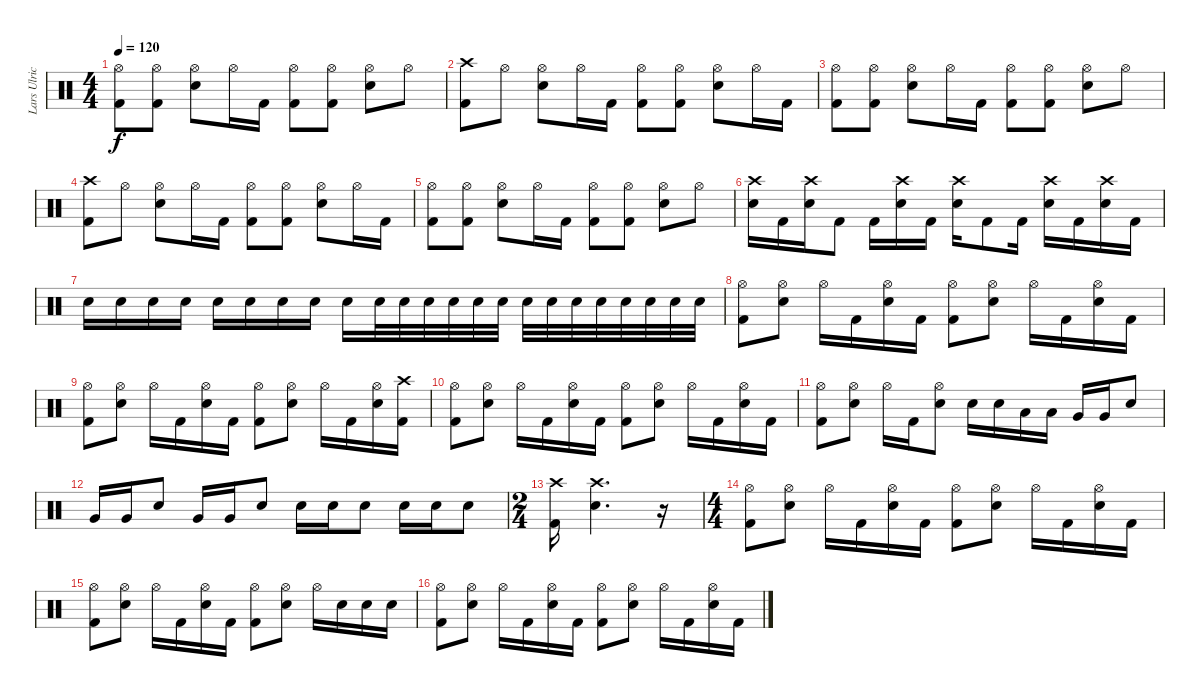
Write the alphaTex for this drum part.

\track ("Lars Ulrich" "Lars Ulric") {instrument percussion}
\staff {score}
\articulation defaults
\ts (4 4)
\tempo 120
\clef neutral
\ks c
("Hi-Hat (open)" "Kick (hit) 2").8{dy f} ("Hi-Hat (open)" "Kick (hit) 2").8 ("Hi-Hat (open)" "Electric Snare (hit)").8 "Hi-Hat (open)".16 "Kick (hit) 2".16 ("Hi-Hat (open)" "Kick (hit) 2").8 ("Hi-Hat (open)" "Kick (hit) 2").8 ("Hi-Hat (open)" "Electric Snare (hit)").8 "Hi-Hat (open)".8 |
("Crash high (hit)" "Kick (hit) 2").8 "Hi-Hat (open)".8 ("Hi-Hat (open)" "Electric Snare (hit)").8 "Hi-Hat (open)".16 "Kick (hit) 2".16 ("Hi-Hat (open)" "Kick (hit) 2").8 ("Hi-Hat (open)" "Kick (hit) 2").8 ("Hi-Hat (open)" "Electric Snare (hit)").8 "Hi-Hat (open)".16 "Kick (hit) 2".16 |
("Hi-Hat (open)" "Kick (hit) 2").8 ("Hi-Hat (open)" "Kick (hit) 2").8 ("Hi-Hat (open)" "Electric Snare (hit)").8 "Hi-Hat (open)".16 "Kick (hit) 2".16 ("Hi-Hat (open)" "Kick (hit) 2").8 ("Hi-Hat (open)" "Kick (hit) 2").8 ("Hi-Hat (open)" "Electric Snare (hit)").8 "Hi-Hat (open)".8 |
("Crash high (hit)" "Kick (hit) 2").8 "Hi-Hat (open)".8 ("Hi-Hat (open)" "Electric Snare (hit)").8 "Hi-Hat (open)".16 "Kick (hit) 2".16 ("Hi-Hat (open)" "Kick (hit) 2").8 ("Hi-Hat (open)" "Kick (hit) 2").8 ("Hi-Hat (open)" "Electric Snare (hit)").8 "Hi-Hat (open)".16 "Kick (hit) 2".16 |
("Hi-Hat (open)" "Kick (hit) 2").8 ("Hi-Hat (open)" "Kick (hit) 2").8 ("Hi-Hat (open)" "Electric Snare (hit)").8 "Hi-Hat (open)".16 "Kick (hit) 2".16 ("Hi-Hat (open)" "Kick (hit) 2").8 ("Hi-Hat (open)" "Kick (hit) 2").8 ("Hi-Hat (open)" "Electric Snare (hit)").8 "Hi-Hat (open)".8 |
("Electric Snare (hit)" "Crash high (hit)").16 "Kick (hit) 2".16 ("Electric Snare (hit)" "Crash high (hit)").16 "Kick (hit) 2".8 "Kick (hit) 2".16 ("Electric Snare (hit)" "Crash high (hit)").16 "Kick (hit) 2".16 ("Electric Snare (hit)" "Crash high (hit)").16 "Kick (hit) 2".8 "Kick (hit) 2".16 ("Electric Snare (hit)" "Crash high (hit)").16 "Kick (hit) 2".16 ("Electric Snare (hit)" "Crash high (hit)").16 "Kick (hit) 2".16 |
"Electric Snare (hit)".16 "Electric Snare (hit)".16 "Electric Snare (hit)".16 "Electric Snare (hit)".16 "Electric Snare (hit)".16 "Electric Snare (hit)".16 "Electric Snare (hit)".16 "Electric Snare (hit)".16 "Electric Snare (hit)".16 "Electric Snare (hit)".32 "Electric Snare (hit)".32 "Electric Snare (hit)".32 "Electric Snare (hit)".32 "Electric Snare (hit)".32 "Electric Snare (hit)".32 "Electric Snare (hit)".32 "Electric Snare (hit)".32 "Electric Snare (hit)".32 "Electric Snare (hit)".32 "Electric Snare (hit)".32 "Electric Snare (hit)".32 "Electric Snare (hit)".32 "Electric Snare (hit)".32 |
("Hi-Hat (open)" "Kick (hit) 2").8 ("Hi-Hat (open)" "Electric Snare (hit)").8 "Hi-Hat (open)".16 "Kick (hit) 2".16 ("Hi-Hat (open)" "Electric Snare (hit)").16 "Kick (hit) 2".16 ("Hi-Hat (open)" "Kick (hit) 2").8 ("Hi-Hat (open)" "Electric Snare (hit)").8 "Hi-Hat (open)".16 "Kick (hit) 2".16 ("Hi-Hat (open)" "Electric Snare (hit)").16 "Kick (hit) 2".16 |
("Hi-Hat (open)" "Kick (hit) 2").8 ("Hi-Hat (open)" "Electric Snare (hit)").8 "Hi-Hat (open)".16 "Kick (hit) 2".16 ("Hi-Hat (open)" "Electric Snare (hit)").16 "Kick (hit) 2".16 ("Hi-Hat (open)" "Kick (hit) 2").8 ("Hi-Hat (open)" "Electric Snare (hit)").8 "Hi-Hat (open)".16 "Kick (hit) 2".16 ("Hi-Hat (open)" "Electric Snare (hit)").16 ("Crash high (hit)" "Kick (hit) 2").16 |
("Hi-Hat (open)" "Kick (hit) 2").8 ("Hi-Hat (open)" "Electric Snare (hit)").8 "Hi-Hat (open)".16 "Kick (hit) 2".16 ("Hi-Hat (open)" "Electric Snare (hit)").16 "Kick (hit) 2".16 ("Hi-Hat (open)" "Kick (hit) 2").8 ("Hi-Hat (open)" "Electric Snare (hit)").8 "Hi-Hat (open)".16 "Kick (hit) 2".16 ("Hi-Hat (open)" "Electric Snare (hit)").16 "Kick (hit) 2".16 |
("Hi-Hat (open)" "Kick (hit) 2").8 ("Hi-Hat (open)" "Electric Snare (hit)").8 "Hi-Hat (open)".16 "Kick (hit) 2".16 ("Hi-Hat (open)" "Electric Snare (hit)").8 "Electric Snare (hit)".16 "Electric Snare (hit)".16 "Low Tom (hit)".16 "Low Tom (hit)".16 "Very Low Tom (hit)".16 "Very Low Tom (hit)".16 "Electric Snare (hit)".8 |
"Very Low Tom (hit)".16 "Very Low Tom (hit)".16 "Electric Snare (hit)".8 "Very Low Tom (hit)".16 "Very Low Tom (hit)".16 "Electric Snare (hit)".8 "Electric Snare (hit)".16 "Electric Snare (hit)".16 "Electric Snare (hit)".8 "Electric Snare (hit)".16 "Electric Snare (hit)".16 "Electric Snare (hit)".8 |
\ts (2 4)
("Crash high (hit)" "Kick (hit) 2").16 ("Electric Snare (hit)" "Crash high (hit)").4{d} r.16 |
\ts (4 4)
("Hi-Hat (open)" "Kick (hit) 2").8 ("Hi-Hat (open)" "Electric Snare (hit)").8 "Hi-Hat (open)".16 "Kick (hit) 2".16 ("Hi-Hat (open)" "Electric Snare (hit)").16 "Kick (hit) 2".16 ("Hi-Hat (open)" "Kick (hit) 2").8 ("Hi-Hat (open)" "Electric Snare (hit)").8 "Hi-Hat (open)".16 "Kick (hit) 2".16 ("Hi-Hat (open)" "Electric Snare (hit)").16 "Kick (hit) 2".16 |
("Hi-Hat (open)" "Kick (hit) 2").8 ("Hi-Hat (open)" "Electric Snare (hit)").8 "Hi-Hat (open)".16 "Kick (hit) 2".16 ("Hi-Hat (open)" "Electric Snare (hit)").16 "Kick (hit) 2".16 ("Hi-Hat (open)" "Kick (hit) 2").8 ("Hi-Hat (open)" "Electric Snare (hit)").8 "Hi-Hat (open)".16 "Electric Snare (hit)".16 "Electric Snare (hit)".16 "Electric Snare (hit)".16 |
("Hi-Hat (open)" "Kick (hit) 2").8 ("Hi-Hat (open)" "Electric Snare (hit)").8 "Hi-Hat (open)".16 "Kick (hit) 2".16 ("Hi-Hat (open)" "Electric Snare (hit)").16 "Kick (hit) 2".16 ("Hi-Hat (open)" "Kick (hit) 2").8 ("Hi-Hat (open)" "Electric Snare (hit)").8 "Hi-Hat (open)".16 "Kick (hit) 2".16 ("Hi-Hat (open)" "Electric Snare (hit)").16 "Kick (hit) 2".16
